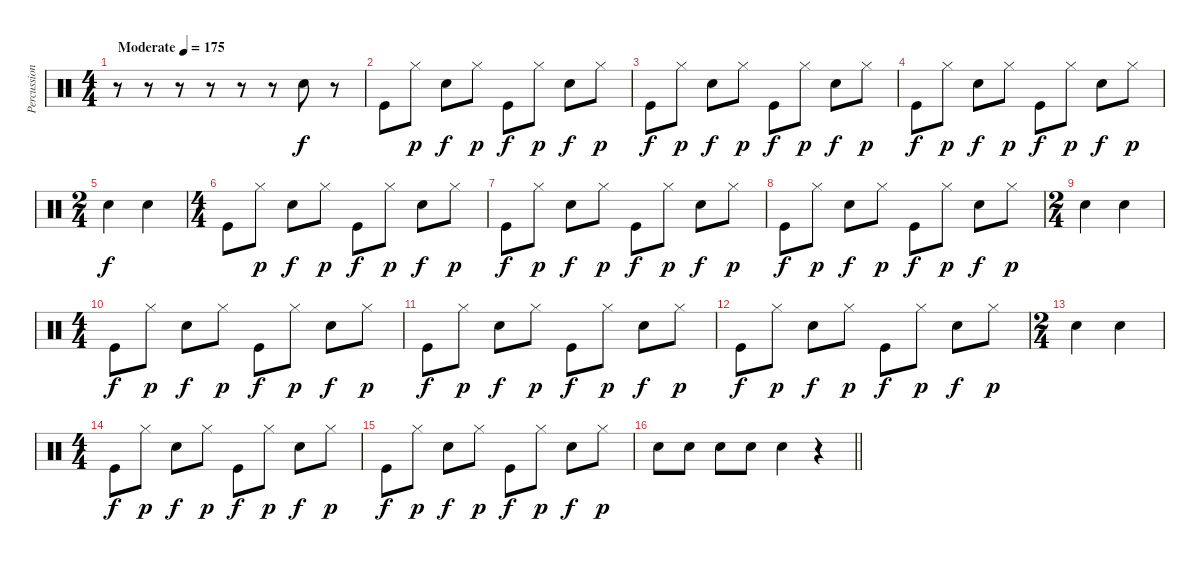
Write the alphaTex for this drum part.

\track ("Percussion" "Percussion") {instrument percussion}
\staff {score}
\articulation defaults
\ts (4 4)
\tempo (175 "Moderate")
\clef neutral
\ks c
r.8{dy f} r.8 r.8 r.8 r.8 r.8 "Snare (hit) 2".8 r.8 |
"Kick (hit)".8 "Hi-Hat (closed)".8{dy p} "Snare (hit) 2".8{dy f} "Hi-Hat (closed)".8{dy p} "Kick (hit)".8{dy f} "Hi-Hat (closed)".8{dy p} "Snare (hit) 2".8{dy f} "Hi-Hat (closed)".8{dy p} |
"Kick (hit)".8{dy f} "Hi-Hat (closed)".8{dy p} "Snare (hit) 2".8{dy f} "Hi-Hat (closed)".8{dy p} "Kick (hit)".8{dy f} "Hi-Hat (closed)".8{dy p} "Snare (hit) 2".8{dy f} "Hi-Hat (closed)".8{dy p} |
"Kick (hit)".8{dy f} "Hi-Hat (closed)".8{dy p} "Snare (hit) 2".8{dy f} "Hi-Hat (closed)".8{dy p} "Kick (hit)".8{dy f} "Hi-Hat (closed)".8{dy p} "Snare (hit) 2".8{dy f} "Hi-Hat (closed)".8{dy p} |
\ts (2 4)
"Snare (hit) 2".4{dy f} "Snare (hit) 2".4 |
\ts (4 4)
"Kick (hit)".8 "Hi-Hat (closed)".8{dy p} "Snare (hit) 2".8{dy f} "Hi-Hat (closed)".8{dy p} "Kick (hit)".8{dy f} "Hi-Hat (closed)".8{dy p} "Snare (hit) 2".8{dy f} "Hi-Hat (closed)".8{dy p} |
"Kick (hit)".8{dy f} "Hi-Hat (closed)".8{dy p} "Snare (hit) 2".8{dy f} "Hi-Hat (closed)".8{dy p} "Kick (hit)".8{dy f} "Hi-Hat (closed)".8{dy p} "Snare (hit) 2".8{dy f} "Hi-Hat (closed)".8{dy p} |
"Kick (hit)".8{dy f} "Hi-Hat (closed)".8{dy p} "Snare (hit) 2".8{dy f} "Hi-Hat (closed)".8{dy p} "Kick (hit)".8{dy f} "Hi-Hat (closed)".8{dy p} "Snare (hit) 2".8{dy f} "Hi-Hat (closed)".8{dy p} |
\ts (2 4)
"Snare (hit) 2".4 "Snare (hit) 2".4 |
\ts (4 4)
"Kick (hit)".8{dy f} "Hi-Hat (closed)".8{dy p} "Snare (hit) 2".8{dy f} "Hi-Hat (closed)".8{dy p} "Kick (hit)".8{dy f} "Hi-Hat (closed)".8{dy p} "Snare (hit) 2".8{dy f} "Hi-Hat (closed)".8{dy p} |
"Kick (hit)".8{dy f} "Hi-Hat (closed)".8{dy p} "Snare (hit) 2".8{dy f} "Hi-Hat (closed)".8{dy p} "Kick (hit)".8{dy f} "Hi-Hat (closed)".8{dy p} "Snare (hit) 2".8{dy f} "Hi-Hat (closed)".8{dy p} |
"Kick (hit)".8{dy f} "Hi-Hat (closed)".8{dy p} "Snare (hit) 2".8{dy f} "Hi-Hat (closed)".8{dy p} "Kick (hit)".8{dy f} "Hi-Hat (closed)".8{dy p} "Snare (hit) 2".8{dy f} "Hi-Hat (closed)".8{dy p} |
\ts (2 4)
"Snare (hit) 2".4 "Snare (hit) 2".4 |
\ts (4 4)
"Kick (hit)".8{dy f} "Hi-Hat (closed)".8{dy p} "Snare (hit) 2".8{dy f} "Hi-Hat (closed)".8{dy p} "Kick (hit)".8{dy f} "Hi-Hat (closed)".8{dy p} "Snare (hit) 2".8{dy f} "Hi-Hat (closed)".8{dy p} |
"Kick (hit)".8{dy f} "Hi-Hat (closed)".8{dy p} "Snare (hit) 2".8{dy f} "Hi-Hat (closed)".8{dy p} "Kick (hit)".8{dy f} "Hi-Hat (closed)".8{dy p} "Snare (hit) 2".8{dy f} "Hi-Hat (closed)".8{dy p} |
\barLineRight lightlight "Snare (hit) 2".8 "Snare (hit) 2".8 "Snare (hit) 2".8 "Snare (hit) 2".8 "Snare (hit) 2".4
r.4
